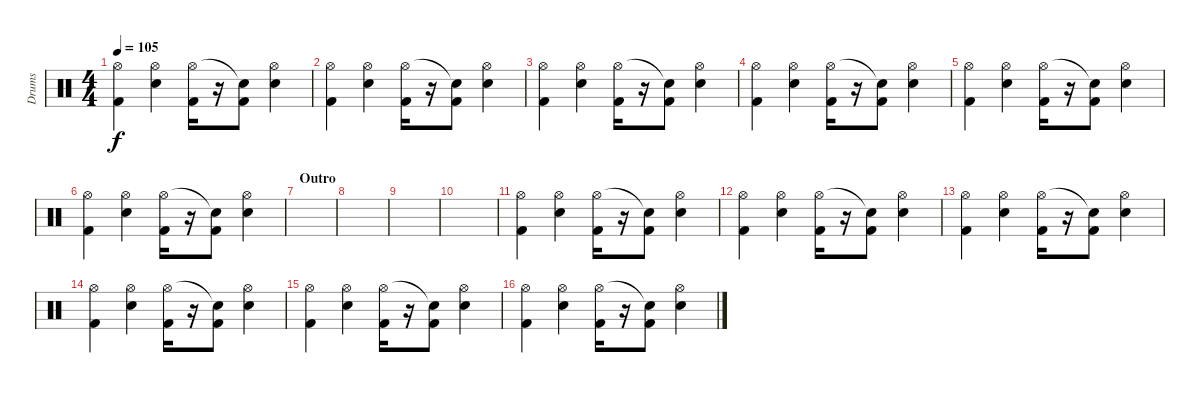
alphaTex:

\track ("Drums" "Drums") {instrument percussion}
\staff {score}
\articulation defaults
\ts (4 4)
\tempo 105
\clef neutral
\ks c
("Hi-Hat (open)" "Kick (hit) 2").4{dy f} ("Hi-Hat (open)" "Electric Snare (hit)").4 ("Hi-Hat (open)" "Kick (hit) 2").16 r.16 ("Snare (hit)"{t} "Kick (hit) 2").8 ("Hi-Hat (open)" "Electric Snare (hit)").4 |
("Hi-Hat (open)" "Kick (hit) 2").4 ("Hi-Hat (open)" "Electric Snare (hit)").4 ("Hi-Hat (open)" "Kick (hit) 2").16 r.16 ("Snare (hit)"{t} "Kick (hit) 2").8 ("Hi-Hat (open)" "Electric Snare (hit)").4 |
("Hi-Hat (open)" "Kick (hit) 2").4 ("Hi-Hat (open)" "Electric Snare (hit)").4 ("Hi-Hat (open)" "Kick (hit) 2").16 r.16 ("Snare (hit)"{t} "Kick (hit) 2").8 ("Hi-Hat (open)" "Electric Snare (hit)").4 |
("Hi-Hat (open)" "Kick (hit) 2").4 ("Hi-Hat (open)" "Electric Snare (hit)").4 ("Hi-Hat (open)" "Kick (hit) 2").16 r.16 ("Snare (hit)"{t} "Kick (hit) 2").8 ("Hi-Hat (open)" "Electric Snare (hit)").4 |
("Hi-Hat (open)" "Kick (hit) 2").4 ("Hi-Hat (open)" "Electric Snare (hit)").4 ("Hi-Hat (open)" "Kick (hit) 2").16 r.16 ("Snare (hit)"{t} "Kick (hit) 2").8 ("Hi-Hat (open)" "Electric Snare (hit)").4 |
("Hi-Hat (open)" "Kick (hit) 2").4 ("Hi-Hat (open)" "Electric Snare (hit)").4 ("Hi-Hat (open)" "Kick (hit) 2").16 r.16 ("Snare (hit)"{t} "Kick (hit) 2").8 ("Hi-Hat (open)" "Electric Snare (hit)").4 |
\section ("" "Outro")
|
|
|
|
("Hi-Hat (open)" "Kick (hit) 2").4 ("Hi-Hat (open)" "Electric Snare (hit)").4 ("Hi-Hat (open)" "Kick (hit) 2").16 r.16 ("Snare (hit)"{t} "Kick (hit) 2").8 ("Hi-Hat (open)" "Electric Snare (hit)").4 |
("Hi-Hat (open)" "Kick (hit) 2").4 ("Hi-Hat (open)" "Electric Snare (hit)").4 ("Hi-Hat (open)" "Kick (hit) 2").16 r.16 ("Snare (hit)"{t} "Kick (hit) 2").8 ("Hi-Hat (open)" "Electric Snare (hit)").4 |
("Hi-Hat (open)" "Kick (hit) 2").4 ("Hi-Hat (open)" "Electric Snare (hit)").4 ("Hi-Hat (open)" "Kick (hit) 2").16 r.16 ("Snare (hit)"{t} "Kick (hit) 2").8 ("Hi-Hat (open)" "Electric Snare (hit)").4 |
("Hi-Hat (open)" "Kick (hit) 2").4 ("Hi-Hat (open)" "Electric Snare (hit)").4 ("Hi-Hat (open)" "Kick (hit) 2").16 r.16 ("Snare (hit)"{t} "Kick (hit) 2").8 ("Hi-Hat (open)" "Electric Snare (hit)").4 |
("Hi-Hat (open)" "Kick (hit) 2").4 ("Hi-Hat (open)" "Electric Snare (hit)").4 ("Hi-Hat (open)" "Kick (hit) 2").16 r.16 ("Snare (hit)"{t} "Kick (hit) 2").8 ("Hi-Hat (open)" "Electric Snare (hit)").4 |
("Hi-Hat (open)" "Kick (hit) 2").4 ("Hi-Hat (open)" "Electric Snare (hit)").4 ("Hi-Hat (open)" "Kick (hit) 2").16 r.16 ("Snare (hit)"{t} "Kick (hit) 2").8 ("Hi-Hat (open)" "Electric Snare (hit)").4
